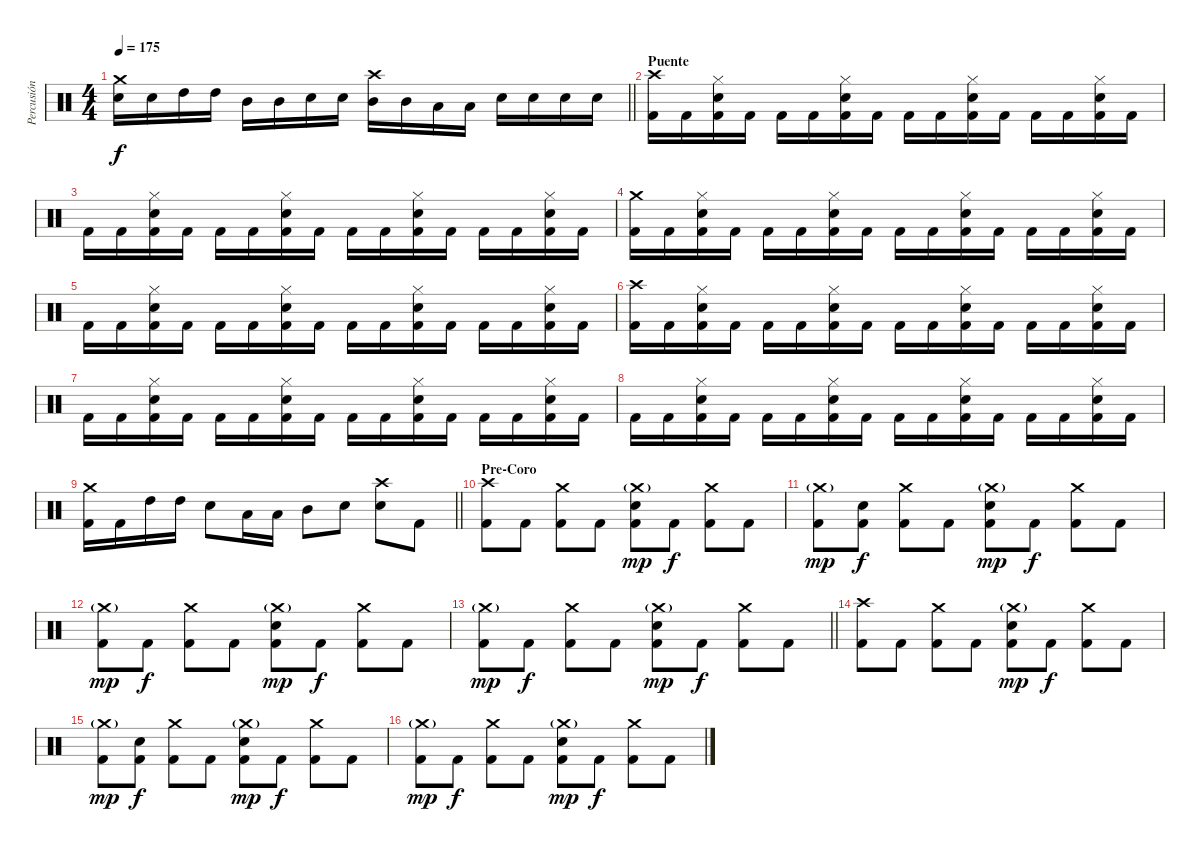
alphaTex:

\track ("Percusión" "Percusión") {instrument percussion}
\staff {score}
\articulation defaults
\ts (4 4)
\tempo 175
\clef neutral
\barLineRight lightlight
\ks c
("Crash medium (hit)" "Snare (hit) 2").16{dy f} "Snare (hit) 2".16 "High Tom (hit)".16 "High Tom (hit)".16 "Mid Tom (hit)".16 "Mid Tom (hit)".16 "Snare (hit) 2".16 "Snare (hit) 2".16 ("Crash high (hit)" "Mid Tom (hit)").16 "Mid Tom (hit)".16 "Low Tom (hit)".16 "Low Tom (hit)".16 "Snare (hit) 2".16 "Snare (hit) 2".16 "Snare (hit) 2".16 "Snare (hit) 2".16 |
\section ("" "Puente")
("Crash high (hit)" "Kick (hit) 2").16 "Kick (hit) 2".16 ("Hi-Hat (closed)" "Snare (hit) 2" "Kick (hit) 2").16 "Kick (hit) 2".16 "Kick (hit) 2".16 "Kick (hit) 2".16 ("Hi-Hat (closed)" "Snare (hit) 2" "Kick (hit) 2").16 "Kick (hit) 2".16 "Kick (hit) 2".16 "Kick (hit) 2".16 ("Hi-Hat (closed)" "Snare (hit) 2" "Kick (hit) 2").16 "Kick (hit) 2".16 "Kick (hit) 2".16 "Kick (hit) 2".16 ("Hi-Hat (closed)" "Snare (hit) 2" "Kick (hit) 2").16 "Kick (hit) 2".16 |
"Kick (hit) 2".16 "Kick (hit) 2".16 ("Hi-Hat (closed)" "Snare (hit) 2" "Kick (hit) 2").16 "Kick (hit) 2".16 "Kick (hit) 2".16 "Kick (hit) 2".16 ("Hi-Hat (closed)" "Snare (hit) 2" "Kick (hit) 2").16 "Kick (hit) 2".16 "Kick (hit) 2".16 "Kick (hit) 2".16 ("Hi-Hat (closed)" "Snare (hit) 2" "Kick (hit) 2").16 "Kick (hit) 2".16 "Kick (hit) 2".16 "Kick (hit) 2".16 ("Hi-Hat (closed)" "Snare (hit) 2" "Kick (hit) 2").16 "Kick (hit) 2".16 |
("Crash medium (hit)" "Kick (hit) 2").16 "Kick (hit) 2".16 ("Hi-Hat (closed)" "Snare (hit) 2" "Kick (hit) 2").16 "Kick (hit) 2".16 "Kick (hit) 2".16 "Kick (hit) 2".16 ("Hi-Hat (closed)" "Snare (hit) 2" "Kick (hit) 2").16 "Kick (hit) 2".16 "Kick (hit) 2".16 "Kick (hit) 2".16 ("Hi-Hat (closed)" "Snare (hit) 2" "Kick (hit) 2").16 "Kick (hit) 2".16 "Kick (hit) 2".16 "Kick (hit) 2".16 ("Hi-Hat (closed)" "Snare (hit) 2" "Kick (hit) 2").16 "Kick (hit) 2".16 |
"Kick (hit) 2".16 "Kick (hit) 2".16 ("Hi-Hat (closed)" "Snare (hit) 2" "Kick (hit) 2").16 "Kick (hit) 2".16 "Kick (hit) 2".16 "Kick (hit) 2".16 ("Hi-Hat (closed)" "Snare (hit) 2" "Kick (hit) 2").16 "Kick (hit) 2".16 "Kick (hit) 2".16 "Kick (hit) 2".16 ("Hi-Hat (closed)" "Snare (hit) 2" "Kick (hit) 2").16 "Kick (hit) 2".16 "Kick (hit) 2".16 "Kick (hit) 2".16 ("Hi-Hat (closed)" "Snare (hit) 2" "Kick (hit) 2").16 "Kick (hit) 2".16 |
("Crash high (hit)" "Kick (hit) 2").16 "Kick (hit) 2".16 ("Hi-Hat (closed)" "Snare (hit) 2" "Kick (hit) 2").16 "Kick (hit) 2".16 "Kick (hit) 2".16 "Kick (hit) 2".16 ("Hi-Hat (closed)" "Snare (hit) 2" "Kick (hit) 2").16 "Kick (hit) 2".16 "Kick (hit) 2".16 "Kick (hit) 2".16 ("Hi-Hat (closed)" "Snare (hit) 2" "Kick (hit) 2").16 "Kick (hit) 2".16 "Kick (hit) 2".16 "Kick (hit) 2".16 ("Hi-Hat (closed)" "Snare (hit) 2" "Kick (hit) 2").16 "Kick (hit) 2".16 |
"Kick (hit) 2".16 "Kick (hit) 2".16 ("Hi-Hat (closed)" "Snare (hit) 2" "Kick (hit) 2").16 "Kick (hit) 2".16 "Kick (hit) 2".16 "Kick (hit) 2".16 ("Hi-Hat (closed)" "Snare (hit) 2" "Kick (hit) 2").16 "Kick (hit) 2".16 "Kick (hit) 2".16 "Kick (hit) 2".16 ("Hi-Hat (closed)" "Snare (hit) 2" "Kick (hit) 2").16 "Kick (hit) 2".16 "Kick (hit) 2".16 "Kick (hit) 2".16 ("Hi-Hat (closed)" "Snare (hit) 2" "Kick (hit) 2").16 "Kick (hit) 2".16 |
"Kick (hit) 2".16 "Kick (hit) 2".16 ("Hi-Hat (closed)" "Snare (hit) 2" "Kick (hit) 2").16 "Kick (hit) 2".16 "Kick (hit) 2".16 "Kick (hit) 2".16 ("Hi-Hat (closed)" "Snare (hit) 2" "Kick (hit) 2").16 "Kick (hit) 2".16 "Kick (hit) 2".16 "Kick (hit) 2".16 ("Hi-Hat (closed)" "Snare (hit) 2" "Kick (hit) 2").16 "Kick (hit) 2".16 "Kick (hit) 2".16 "Kick (hit) 2".16 ("Hi-Hat (closed)" "Snare (hit) 2" "Kick (hit) 2").16 "Kick (hit) 2".16 |
\barLineRight lightlight
("Crash medium (hit)" "Kick (hit) 2").16 "Kick (hit) 2".16 "High Tom (hit)".16 "High Tom (hit)".16 "Snare (hit) 2".8 "Low Tom (hit)".16 "Low Tom (hit)".16 "Mid Tom (hit)".8 "Snare (hit) 2".8 ("Crash high (hit)" "Snare (hit) 2").8 "Kick (hit) 2".8 |
\section ("" "Pre-Coro")
("Crash high (hit)" "Kick (hit) 2").8 "Kick (hit) 2".8 ("Crash medium (hit)" "Kick (hit) 2").8 "Kick (hit) 2".8 ("Crash medium (hit)"{g} "Snare (hit) 2" "Kick (hit) 2").8{dy mp} "Kick (hit) 2".8{dy f} ("Crash medium (hit)" "Kick (hit) 2").8 "Kick (hit) 2".8 |
("Crash medium (hit)"{g} "Kick (hit) 2").8{dy mp} ("Snare (hit) 2" "Kick (hit) 2").8{dy f} ("Crash medium (hit)" "Kick (hit) 2").8 "Kick (hit) 2".8 ("Crash medium (hit)"{g} "Snare (hit) 2" "Kick (hit) 2").8{dy mp} "Kick (hit) 2".8{dy f} ("Crash medium (hit)" "Kick (hit) 2").8 "Kick (hit) 2".8 |
("Crash medium (hit)"{g} "Kick (hit) 2").8{dy mp} "Kick (hit) 2".8{dy f} ("Crash medium (hit)" "Kick (hit) 2").8 "Kick (hit) 2".8 ("Crash medium (hit)"{g} "Snare (hit) 2" "Kick (hit) 2").8{dy mp} "Kick (hit) 2".8{dy f} ("Crash medium (hit)" "Kick (hit) 2").8 "Kick (hit) 2".8 |
\barLineRight lightlight
("Crash medium (hit)"{g} "Kick (hit) 2").8{dy mp} "Kick (hit) 2".8{dy f} ("Crash medium (hit)" "Kick (hit) 2").8 "Kick (hit) 2".8 ("Crash medium (hit)"{g} "Snare (hit) 2" "Kick (hit) 2").8{dy mp} "Kick (hit) 2".8{dy f} ("Crash medium (hit)" "Kick (hit) 2").8 "Kick (hit) 2".8 |
\section ("" "")
("Crash high (hit)" "Kick (hit) 2").8 "Kick (hit) 2".8 ("Crash medium (hit)" "Kick (hit) 2").8 "Kick (hit) 2".8 ("Crash medium (hit)"{g} "Snare (hit) 2" "Kick (hit) 2").8{dy mp} "Kick (hit) 2".8{dy f} ("Crash medium (hit)" "Kick (hit) 2").8 "Kick (hit) 2".8 |
("Crash medium (hit)"{g} "Kick (hit) 2").8{dy mp} ("Snare (hit) 2" "Kick (hit) 2").8{dy f} ("Crash medium (hit)" "Kick (hit) 2").8 "Kick (hit) 2".8 ("Crash medium (hit)"{g} "Snare (hit) 2" "Kick (hit) 2").8{dy mp} "Kick (hit) 2".8{dy f} ("Crash medium (hit)" "Kick (hit) 2").8 "Kick (hit) 2".8 |
("Crash medium (hit)"{g} "Kick (hit) 2").8{dy mp} "Kick (hit) 2".8{dy f} ("Crash medium (hit)" "Kick (hit) 2").8 "Kick (hit) 2".8 ("Crash medium (hit)"{g} "Snare (hit) 2" "Kick (hit) 2").8{dy mp} "Kick (hit) 2".8{dy f} ("Crash medium (hit)" "Kick (hit) 2").8 "Kick (hit) 2".8
